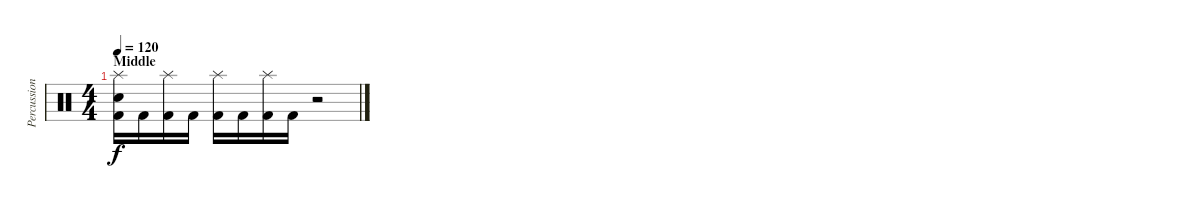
\track ("Percussion" "Percussion") {instrument percussion}
\staff {score}
\articulation defaults
\ts (4 4)
\section ("" "Middle")
\tempo 120
\clef neutral
\ks c
("Splash (hit)" "Snare (hit) 2" "Kick (hit) 2").16{dy f} "Kick (hit) 2".16 ("Splash (hit)" "Kick (hit) 2").16 "Kick (hit) 2".16 ("Splash (hit)" "Kick (hit) 2").16 "Kick (hit) 2".16 ("Splash (hit)" "Kick (hit) 2").16 "Kick (hit) 2".16 r.2
